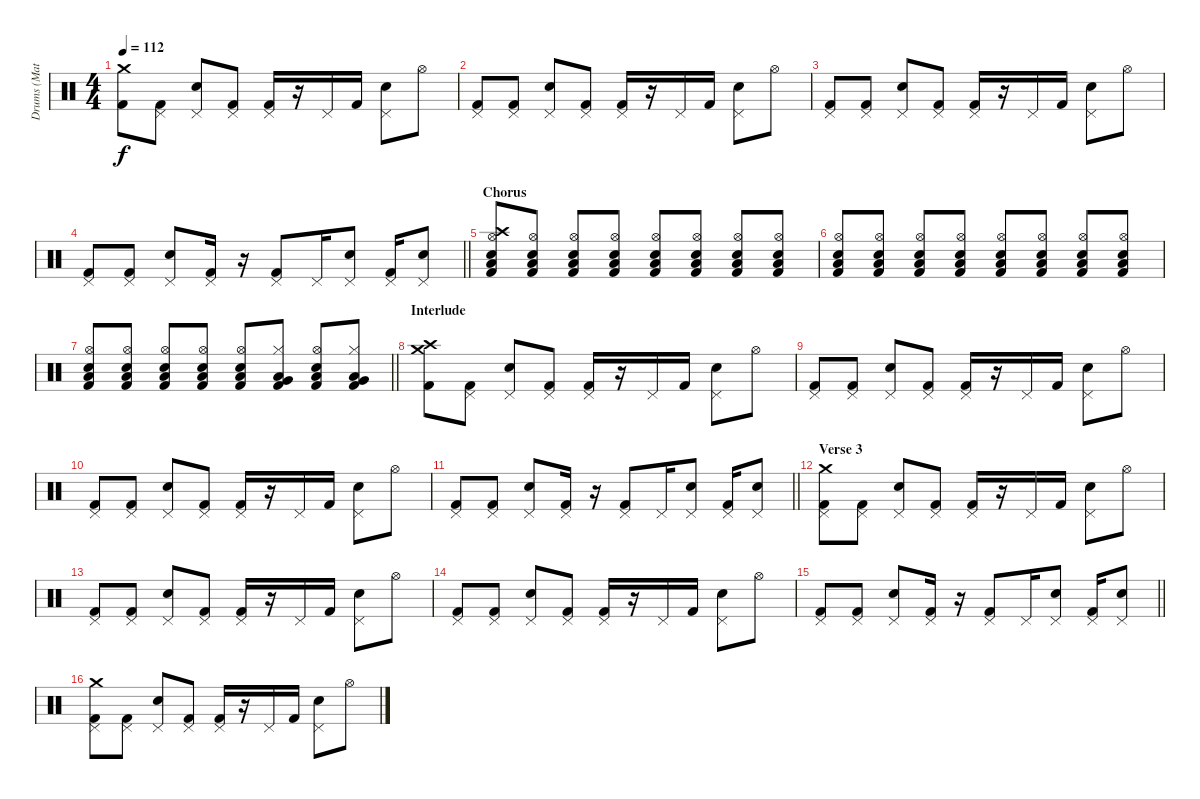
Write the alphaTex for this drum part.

\track ("Drums (Matt)" "Drums (Mat") {instrument percussion}
\staff {score}
\articulation defaults
\ts (4 4)
\tempo 112
\clef neutral
\ks c
("Crash medium (hit)" "Kick (hit) 2").8{dy f} ("Pedal Hi-Hat (hit)" "Kick (hit) 2").8 ("Pedal Hi-Hat (hit)" "Electric Snare (hit)").8 ("Pedal Hi-Hat (hit)" "Kick (hit) 2").8 ("Pedal Hi-Hat (hit)" "Kick (hit) 2").16 r.16 "Pedal Hi-Hat (hit)".16 "Kick (hit) 2".16 ("Pedal Hi-Hat (hit)" "Electric Snare (hit)").8 "Hi-Hat (open)".8 |
("Pedal Hi-Hat (hit)" "Kick (hit) 2").8 ("Pedal Hi-Hat (hit)" "Kick (hit) 2").8 ("Pedal Hi-Hat (hit)" "Electric Snare (hit)").8 ("Pedal Hi-Hat (hit)" "Kick (hit) 2").8 ("Pedal Hi-Hat (hit)" "Kick (hit) 2").16 r.16 "Pedal Hi-Hat (hit)".16 "Kick (hit) 2".16 ("Pedal Hi-Hat (hit)" "Electric Snare (hit)").8 "Hi-Hat (open)".8 |
("Pedal Hi-Hat (hit)" "Kick (hit) 2").8 ("Pedal Hi-Hat (hit)" "Kick (hit) 2").8 ("Pedal Hi-Hat (hit)" "Electric Snare (hit)").8 ("Pedal Hi-Hat (hit)" "Kick (hit) 2").8 ("Pedal Hi-Hat (hit)" "Kick (hit) 2").16 r.16 "Pedal Hi-Hat (hit)".16 "Kick (hit) 2".16 ("Pedal Hi-Hat (hit)" "Electric Snare (hit)").8 "Hi-Hat (open)".8 |
\barLineRight lightlight
("Pedal Hi-Hat (hit)" "Kick (hit) 2").8 ("Pedal Hi-Hat (hit)" "Kick (hit) 2").8 ("Pedal Hi-Hat (hit)" "Electric Snare (hit)").8 ("Pedal Hi-Hat (hit)" "Kick (hit) 2").16 r.16 ("Pedal Hi-Hat (hit)" "Kick (hit) 2").8 "Pedal Hi-Hat (hit)".16 ("Pedal Hi-Hat (hit)" "Electric Snare (hit)").8 ("Pedal Hi-Hat (hit)" "Kick (hit) 2").16 ("Pedal Hi-Hat (hit)" "Electric Snare (hit)").8 |
\section ("" "Chorus")
("Crash high (hit)" "Hi-Hat (open)" "Electric Snare (hit)" "Low Floor Tom (hit)" "Kick (hit) 2").8 ("Hi-Hat (open)" "Electric Snare (hit)" "Low Floor Tom (hit)" "Kick (hit) 2").8 ("Hi-Hat (open)" "Electric Snare (hit)" "Low Floor Tom (hit)" "Kick (hit) 2").8 ("Hi-Hat (open)" "Electric Snare (hit)" "Low Floor Tom (hit)" "Kick (hit) 2").8 ("Hi-Hat (open)" "Electric Snare (hit)" "Low Floor Tom (hit)" "Kick (hit) 2").8 ("Hi-Hat (open)" "Electric Snare (hit)" "Low Floor Tom (hit)" "Kick (hit) 2").8 ("Hi-Hat (open)" "Electric Snare (hit)" "Low Floor Tom (hit)" "Kick (hit) 2").8 ("Hi-Hat (open)" "Electric Snare (hit)" "Low Floor Tom (hit)" "Kick (hit) 2").8 |
("Hi-Hat (open)" "Electric Snare (hit)" "Low Floor Tom (hit)" "Kick (hit) 2").8 ("Hi-Hat (open)" "Electric Snare (hit)" "Low Floor Tom (hit)" "Kick (hit) 2").8 ("Hi-Hat (open)" "Electric Snare (hit)" "Low Floor Tom (hit)" "Kick (hit) 2").8 ("Hi-Hat (open)" "Electric Snare (hit)" "Low Floor Tom (hit)" "Kick (hit) 2").8 ("Hi-Hat (open)" "Electric Snare (hit)" "Low Floor Tom (hit)" "Kick (hit) 2").8 ("Hi-Hat (open)" "Electric Snare (hit)" "Low Floor Tom (hit)" "Kick (hit) 2").8 ("Hi-Hat (open)" "Electric Snare (hit)" "Low Floor Tom (hit)" "Kick (hit) 2").8 ("Hi-Hat (open)" "Electric Snare (hit)" "Low Floor Tom (hit)" "Kick (hit) 2").8 |
\barLineRight lightlight
("Hi-Hat (open)" "Electric Snare (hit)" "Low Floor Tom (hit)" "Kick (hit) 2").8 ("Hi-Hat (open)" "Electric Snare (hit)" "Low Floor Tom (hit)" "Kick (hit) 2").8 ("Hi-Hat (open)" "Electric Snare (hit)" "Low Floor Tom (hit)" "Kick (hit) 2").8 ("Hi-Hat (open)" "Electric Snare (hit)" "Low Floor Tom (hit)" "Kick (hit) 2").8 ("Hi-Hat (open)" "Electric Snare (hit)" "Low Floor Tom (hit)" "Kick (hit) 2").8 ("Hi-Hat (closed)" "Very Low Tom (hit)" "Low Floor Tom (hit)" "Kick (hit) 2").8 ("Hi-Hat (open)" "Electric Snare (hit)" "Low Floor Tom (hit)" "Kick (hit) 2").8 ("Hi-Hat (closed)" "Very Low Tom (hit)" "Low Floor Tom (hit)" "Kick (hit) 2").8 |
\section ("" "Interlude")
("Crash medium (hit)" "Crash high (hit)" "Kick (hit) 2").8 ("Pedal Hi-Hat (hit)" "Kick (hit) 2").8 ("Pedal Hi-Hat (hit)" "Electric Snare (hit)").8 ("Pedal Hi-Hat (hit)" "Kick (hit) 2").8 ("Pedal Hi-Hat (hit)" "Kick (hit) 2").16 r.16 "Pedal Hi-Hat (hit)".16 "Kick (hit) 2".16 ("Pedal Hi-Hat (hit)" "Electric Snare (hit)").8 "Hi-Hat (open)".8 |
("Pedal Hi-Hat (hit)" "Kick (hit) 2").8 ("Pedal Hi-Hat (hit)" "Kick (hit) 2").8 ("Pedal Hi-Hat (hit)" "Electric Snare (hit)").8 ("Pedal Hi-Hat (hit)" "Kick (hit) 2").8 ("Pedal Hi-Hat (hit)" "Kick (hit) 2").16 r.16 "Pedal Hi-Hat (hit)".16 "Kick (hit) 2".16 ("Pedal Hi-Hat (hit)" "Electric Snare (hit)").8 "Hi-Hat (open)".8 |
("Pedal Hi-Hat (hit)" "Kick (hit) 2").8 ("Pedal Hi-Hat (hit)" "Kick (hit) 2").8 ("Pedal Hi-Hat (hit)" "Electric Snare (hit)").8 ("Pedal Hi-Hat (hit)" "Kick (hit) 2").8 ("Pedal Hi-Hat (hit)" "Kick (hit) 2").16 r.16 "Pedal Hi-Hat (hit)".16 "Kick (hit) 2".16 ("Pedal Hi-Hat (hit)" "Electric Snare (hit)").8 "Hi-Hat (open)".8 |
\barLineRight lightlight
("Pedal Hi-Hat (hit)" "Kick (hit) 2").8 ("Pedal Hi-Hat (hit)" "Kick (hit) 2").8 ("Pedal Hi-Hat (hit)" "Electric Snare (hit)").8 ("Pedal Hi-Hat (hit)" "Kick (hit) 2").16 r.16 ("Pedal Hi-Hat (hit)" "Kick (hit) 2").8 "Pedal Hi-Hat (hit)".16 ("Pedal Hi-Hat (hit)" "Electric Snare (hit)").8 ("Pedal Hi-Hat (hit)" "Kick (hit) 2").16 ("Pedal Hi-Hat (hit)" "Electric Snare (hit)").8 |
\section ("" "Verse 3")
("Crash medium (hit)" "Pedal Hi-Hat (hit)" "Kick (hit) 2").8 ("Pedal Hi-Hat (hit)" "Kick (hit) 2").8 ("Pedal Hi-Hat (hit)" "Electric Snare (hit)").8 ("Pedal Hi-Hat (hit)" "Kick (hit) 2").8 ("Pedal Hi-Hat (hit)" "Kick (hit) 2").16 r.16 "Pedal Hi-Hat (hit)".16 "Kick (hit) 2".16 ("Pedal Hi-Hat (hit)" "Electric Snare (hit)").8 "Hi-Hat (open)".8 |
("Pedal Hi-Hat (hit)" "Kick (hit) 2").8 ("Pedal Hi-Hat (hit)" "Kick (hit) 2").8 ("Pedal Hi-Hat (hit)" "Electric Snare (hit)").8 ("Pedal Hi-Hat (hit)" "Kick (hit) 2").8 ("Pedal Hi-Hat (hit)" "Kick (hit) 2").16 r.16 "Pedal Hi-Hat (hit)".16 "Kick (hit) 2".16 ("Pedal Hi-Hat (hit)" "Electric Snare (hit)").8 "Hi-Hat (open)".8 |
("Pedal Hi-Hat (hit)" "Kick (hit) 2").8 ("Pedal Hi-Hat (hit)" "Kick (hit) 2").8 ("Pedal Hi-Hat (hit)" "Electric Snare (hit)").8 ("Pedal Hi-Hat (hit)" "Kick (hit) 2").8 ("Pedal Hi-Hat (hit)" "Kick (hit) 2").16 r.16 "Pedal Hi-Hat (hit)".16 "Kick (hit) 2".16 ("Pedal Hi-Hat (hit)" "Electric Snare (hit)").8 "Hi-Hat (open)".8 |
\barLineRight lightlight
("Pedal Hi-Hat (hit)" "Kick (hit) 2").8 ("Pedal Hi-Hat (hit)" "Kick (hit) 2").8 ("Pedal Hi-Hat (hit)" "Electric Snare (hit)").8 ("Pedal Hi-Hat (hit)" "Kick (hit) 2").16 r.16 ("Pedal Hi-Hat (hit)" "Kick (hit) 2").8 "Pedal Hi-Hat (hit)".16 ("Pedal Hi-Hat (hit)" "Electric Snare (hit)").8 ("Pedal Hi-Hat (hit)" "Kick (hit) 2").16 ("Pedal Hi-Hat (hit)" "Electric Snare (hit)").8 |
("Crash medium (hit)" "Pedal Hi-Hat (hit)" "Kick (hit) 2").8 ("Pedal Hi-Hat (hit)" "Kick (hit) 2").8 ("Pedal Hi-Hat (hit)" "Electric Snare (hit)").8 ("Pedal Hi-Hat (hit)" "Kick (hit) 2").8 ("Pedal Hi-Hat (hit)" "Kick (hit) 2").16 r.16 "Pedal Hi-Hat (hit)".16 "Kick (hit) 2".16 ("Pedal Hi-Hat (hit)" "Electric Snare (hit)").8 "Hi-Hat (open)".8
